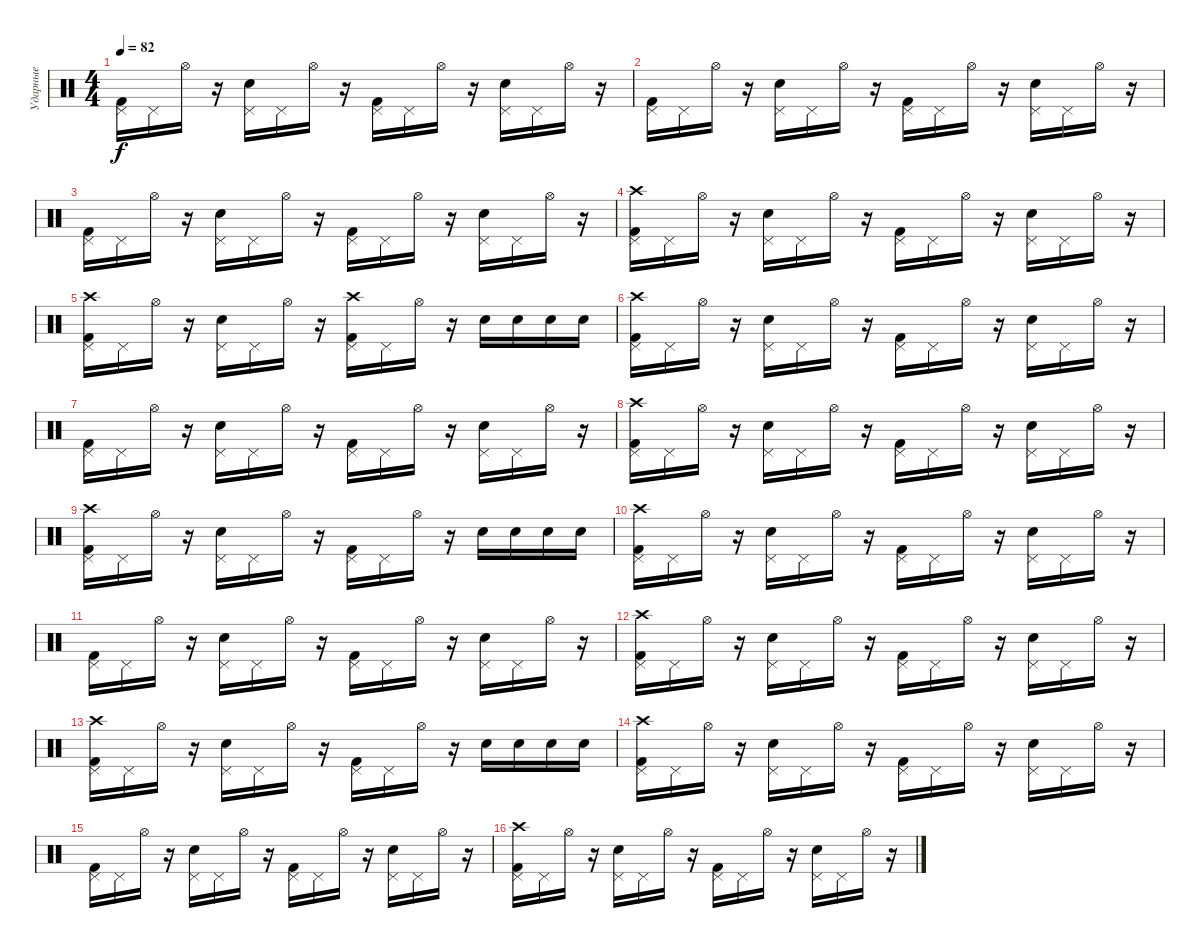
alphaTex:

\track ("Ударные" "Ударные") {instrument percussion}
\staff {score}
\articulation defaults
\ts (4 4)
\tempo 82
\clef neutral
\ks c
("Pedal Hi-Hat (hit)" "Kick (hit) 2").16{dy f} "Pedal Hi-Hat (hit)".16 "Hi-Hat (open)".16 r.16 ("Pedal Hi-Hat (hit)" "Electric Snare (hit)").16 "Pedal Hi-Hat (hit)".16 "Hi-Hat (open)".16 r.16 ("Pedal Hi-Hat (hit)" "Kick (hit) 2").16 "Pedal Hi-Hat (hit)".16 "Hi-Hat (open)".16 r.16 ("Pedal Hi-Hat (hit)" "Electric Snare (hit)").16 "Pedal Hi-Hat (hit)".16 "Hi-Hat (open)".16 r.16 |
("Pedal Hi-Hat (hit)" "Kick (hit) 2").16 "Pedal Hi-Hat (hit)".16 "Hi-Hat (open)".16 r.16 ("Pedal Hi-Hat (hit)" "Electric Snare (hit)").16 "Pedal Hi-Hat (hit)".16 "Hi-Hat (open)".16 r.16 ("Pedal Hi-Hat (hit)" "Kick (hit) 2").16 "Pedal Hi-Hat (hit)".16 "Hi-Hat (open)".16 r.16 ("Pedal Hi-Hat (hit)" "Electric Snare (hit)").16 "Pedal Hi-Hat (hit)".16 "Hi-Hat (open)".16 r.16 |
("Pedal Hi-Hat (hit)" "Kick (hit) 2").16 "Pedal Hi-Hat (hit)".16 "Hi-Hat (open)".16 r.16 ("Pedal Hi-Hat (hit)" "Electric Snare (hit)").16 "Pedal Hi-Hat (hit)".16 "Hi-Hat (open)".16 r.16 ("Pedal Hi-Hat (hit)" "Kick (hit) 2").16 "Pedal Hi-Hat (hit)".16 "Hi-Hat (open)".16 r.16 ("Pedal Hi-Hat (hit)" "Electric Snare (hit)").16 "Pedal Hi-Hat (hit)".16 "Hi-Hat (open)".16 r.16 |
("Crash high (hit)" "Pedal Hi-Hat (hit)" "Kick (hit) 2").16 "Pedal Hi-Hat (hit)".16 "Hi-Hat (open)".16 r.16 ("Pedal Hi-Hat (hit)" "Electric Snare (hit)").16 "Pedal Hi-Hat (hit)".16 "Hi-Hat (open)".16 r.16 ("Pedal Hi-Hat (hit)" "Kick (hit) 2").16 "Pedal Hi-Hat (hit)".16 "Hi-Hat (open)".16 r.16 ("Pedal Hi-Hat (hit)" "Electric Snare (hit)").16 "Pedal Hi-Hat (hit)".16 "Hi-Hat (open)".16 r.16 |
("Crash high (hit)" "Pedal Hi-Hat (hit)" "Kick (hit) 2").16 "Pedal Hi-Hat (hit)".16 "Hi-Hat (open)".16 r.16 ("Pedal Hi-Hat (hit)" "Electric Snare (hit)").16 "Pedal Hi-Hat (hit)".16 "Hi-Hat (open)".16 r.16 ("Crash high (hit)" "Pedal Hi-Hat (hit)" "Kick (hit) 2").16 "Pedal Hi-Hat (hit)".16 "Hi-Hat (open)".16 r.16 "Electric Snare (hit)".16 "Electric Snare (hit)".16 "Electric Snare (hit)".16 "Electric Snare (hit)".16 |
("Crash high (hit)" "Pedal Hi-Hat (hit)" "Kick (hit) 2").16 "Pedal Hi-Hat (hit)".16 "Hi-Hat (open)".16 r.16 ("Pedal Hi-Hat (hit)" "Electric Snare (hit)").16 "Pedal Hi-Hat (hit)".16 "Hi-Hat (open)".16 r.16 ("Pedal Hi-Hat (hit)" "Kick (hit) 2").16 "Pedal Hi-Hat (hit)".16 "Hi-Hat (open)".16 r.16 ("Pedal Hi-Hat (hit)" "Electric Snare (hit)").16 "Pedal Hi-Hat (hit)".16 "Hi-Hat (open)".16 r.16 |
("Pedal Hi-Hat (hit)" "Kick (hit) 2").16 "Pedal Hi-Hat (hit)".16 "Hi-Hat (open)".16 r.16 ("Pedal Hi-Hat (hit)" "Electric Snare (hit)").16 "Pedal Hi-Hat (hit)".16 "Hi-Hat (open)".16 r.16 ("Pedal Hi-Hat (hit)" "Kick (hit) 2").16 "Pedal Hi-Hat (hit)".16 "Hi-Hat (open)".16 r.16 ("Pedal Hi-Hat (hit)" "Electric Snare (hit)").16 "Pedal Hi-Hat (hit)".16 "Hi-Hat (open)".16 r.16 |
("Crash high (hit)" "Pedal Hi-Hat (hit)" "Kick (hit) 2").16 "Pedal Hi-Hat (hit)".16 "Hi-Hat (open)".16 r.16 ("Pedal Hi-Hat (hit)" "Electric Snare (hit)").16 "Pedal Hi-Hat (hit)".16 "Hi-Hat (open)".16 r.16 ("Pedal Hi-Hat (hit)" "Kick (hit) 2").16 "Pedal Hi-Hat (hit)".16 "Hi-Hat (open)".16 r.16 ("Pedal Hi-Hat (hit)" "Electric Snare (hit)").16 "Pedal Hi-Hat (hit)".16 "Hi-Hat (open)".16 r.16 |
("Crash high (hit)" "Pedal Hi-Hat (hit)" "Kick (hit) 2").16 "Pedal Hi-Hat (hit)".16 "Hi-Hat (open)".16 r.16 ("Pedal Hi-Hat (hit)" "Electric Snare (hit)").16 "Pedal Hi-Hat (hit)".16 "Hi-Hat (open)".16 r.16 ("Pedal Hi-Hat (hit)" "Kick (hit) 2").16 "Pedal Hi-Hat (hit)".16 "Hi-Hat (open)".16 r.16 "Electric Snare (hit)".16 "Electric Snare (hit)".16 "Electric Snare (hit)".16 "Electric Snare (hit)".16 |
("Crash high (hit)" "Pedal Hi-Hat (hit)" "Kick (hit) 2").16 "Pedal Hi-Hat (hit)".16 "Hi-Hat (open)".16 r.16 ("Pedal Hi-Hat (hit)" "Electric Snare (hit)").16 "Pedal Hi-Hat (hit)".16 "Hi-Hat (open)".16 r.16 ("Pedal Hi-Hat (hit)" "Kick (hit) 2").16 "Pedal Hi-Hat (hit)".16 "Hi-Hat (open)".16 r.16 ("Pedal Hi-Hat (hit)" "Electric Snare (hit)").16 "Pedal Hi-Hat (hit)".16 "Hi-Hat (open)".16 r.16 |
("Pedal Hi-Hat (hit)" "Kick (hit) 2").16 "Pedal Hi-Hat (hit)".16 "Hi-Hat (open)".16 r.16 ("Pedal Hi-Hat (hit)" "Electric Snare (hit)").16 "Pedal Hi-Hat (hit)".16 "Hi-Hat (open)".16 r.16 ("Pedal Hi-Hat (hit)" "Kick (hit) 2").16 "Pedal Hi-Hat (hit)".16 "Hi-Hat (open)".16 r.16 ("Pedal Hi-Hat (hit)" "Electric Snare (hit)").16 "Pedal Hi-Hat (hit)".16 "Hi-Hat (open)".16 r.16 |
("Crash high (hit)" "Pedal Hi-Hat (hit)" "Kick (hit) 2").16 "Pedal Hi-Hat (hit)".16 "Hi-Hat (open)".16 r.16 ("Pedal Hi-Hat (hit)" "Electric Snare (hit)").16 "Pedal Hi-Hat (hit)".16 "Hi-Hat (open)".16 r.16 ("Pedal Hi-Hat (hit)" "Kick (hit) 2").16 "Pedal Hi-Hat (hit)".16 "Hi-Hat (open)".16 r.16 ("Pedal Hi-Hat (hit)" "Electric Snare (hit)").16 "Pedal Hi-Hat (hit)".16 "Hi-Hat (open)".16 r.16 |
("Crash high (hit)" "Pedal Hi-Hat (hit)" "Kick (hit) 2").16 "Pedal Hi-Hat (hit)".16 "Hi-Hat (open)".16 r.16 ("Pedal Hi-Hat (hit)" "Electric Snare (hit)").16 "Pedal Hi-Hat (hit)".16 "Hi-Hat (open)".16 r.16 ("Pedal Hi-Hat (hit)" "Kick (hit) 2").16 "Pedal Hi-Hat (hit)".16 "Hi-Hat (open)".16 r.16 "Electric Snare (hit)".16 "Electric Snare (hit)".16 "Electric Snare (hit)".16 "Electric Snare (hit)".16 |
("Crash high (hit)" "Pedal Hi-Hat (hit)" "Kick (hit) 2").16 "Pedal Hi-Hat (hit)".16 "Hi-Hat (open)".16 r.16 ("Pedal Hi-Hat (hit)" "Electric Snare (hit)").16 "Pedal Hi-Hat (hit)".16 "Hi-Hat (open)".16 r.16 ("Pedal Hi-Hat (hit)" "Kick (hit) 2").16 "Pedal Hi-Hat (hit)".16 "Hi-Hat (open)".16 r.16 ("Pedal Hi-Hat (hit)" "Electric Snare (hit)").16 "Pedal Hi-Hat (hit)".16 "Hi-Hat (open)".16 r.16 |
("Pedal Hi-Hat (hit)" "Kick (hit) 2").16 "Pedal Hi-Hat (hit)".16 "Hi-Hat (open)".16 r.16 ("Pedal Hi-Hat (hit)" "Electric Snare (hit)").16 "Pedal Hi-Hat (hit)".16 "Hi-Hat (open)".16 r.16 ("Pedal Hi-Hat (hit)" "Kick (hit) 2").16 "Pedal Hi-Hat (hit)".16 "Hi-Hat (open)".16 r.16 ("Pedal Hi-Hat (hit)" "Electric Snare (hit)").16 "Pedal Hi-Hat (hit)".16 "Hi-Hat (open)".16 r.16 |
("Crash high (hit)" "Pedal Hi-Hat (hit)" "Kick (hit) 2").16 "Pedal Hi-Hat (hit)".16 "Hi-Hat (open)".16 r.16 ("Pedal Hi-Hat (hit)" "Electric Snare (hit)").16 "Pedal Hi-Hat (hit)".16 "Hi-Hat (open)".16 r.16 ("Pedal Hi-Hat (hit)" "Kick (hit) 2").16 "Pedal Hi-Hat (hit)".16 "Hi-Hat (open)".16 r.16 ("Pedal Hi-Hat (hit)" "Electric Snare (hit)").16 "Pedal Hi-Hat (hit)".16 "Hi-Hat (open)".16 r.16
